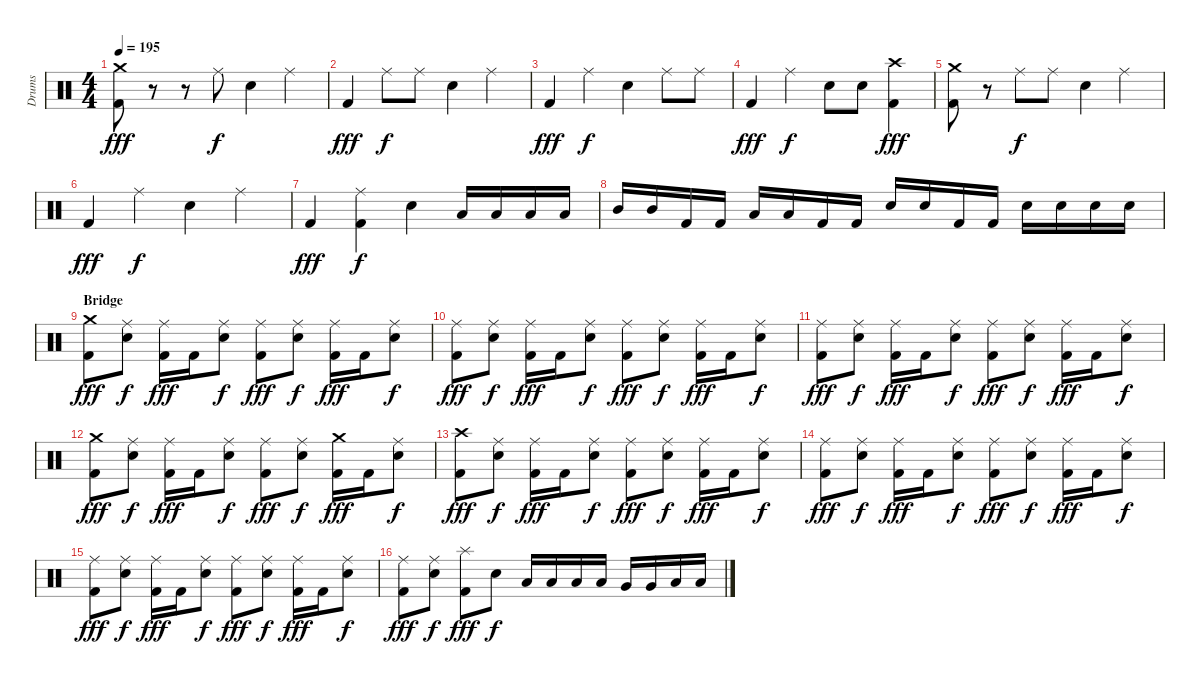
\track ("Drums" "Drums") {instrument percussion}
\staff {score}
\articulation defaults
\ts (4 4)
\tempo 195
\clef neutral
\ks c
("Crash medium (hit)" "Kick (hit) 2").8{dy fff} r.8 r.8 "Ride (middle)".8{dy f} "Snare (hit) 2".4 "Ride (middle)".4 |
"Kick (hit) 2".4{dy fff} "Ride (middle)".8{dy f} "Ride (middle)".8 "Snare (hit) 2".4 "Ride (middle)".4 |
"Kick (hit) 2".4{dy fff} "Ride (middle)".4{dy f} "Snare (hit) 2".4 "Ride (middle)".8 "Ride (middle)".8 |
"Kick (hit) 2".4{dy fff} "Ride (middle)".4{dy f} "Snare (hit) 2".8 "Snare (hit) 2".8 ("Crash high (hit)" "Kick (hit) 2").4{dy fff} |
("Crash medium (hit)" "Kick (hit) 2").8 r.8 "Ride (middle)".8{dy f} "Ride (middle)".8 "Snare (hit) 2".4 "Ride (middle)".4 |
"Kick (hit) 2".4{dy fff} "Ride (middle)".4{dy f} "Snare (hit) 2".4 "Ride (middle)".4 |
"Kick (hit) 2".4{dy fff} ("Ride (middle)" "Kick (hit) 2").4{dy f} "Snare (hit) 2".4 "Low Tom (hit)".16 "Low Tom (hit)".16 "Low Tom (hit)".16 "Low Tom (hit)".16 |
"Mid Tom (hit)".16 "Mid Tom (hit)".16 "Kick (hit) 2".16 "Kick (hit) 2".16 "Low Tom (hit)".16 "Low Tom (hit)".16 "Kick (hit) 2".16 "Kick (hit) 2".16 "Snare (hit) 2".16 "Snare (hit) 2".16 "Kick (hit) 2".16 "Kick (hit) 2".16 "Snare (hit) 2".16 "Snare (hit) 2".16 "Snare (hit) 2".16 "Snare (hit) 2".16 |
\section ("" "Bridge")
("Crash medium (hit)" "Kick (hit) 2").8{dy fff} ("Ride (middle)" "Snare (hit) 2").8{dy f} ("Ride (middle)" "Kick (hit) 2").16{dy fff} "Kick (hit) 2".16 ("Ride (middle)" "Snare (hit) 2").8{dy f} ("Ride (middle)" "Kick (hit) 2").8{dy fff} ("Ride (middle)" "Snare (hit) 2").8{dy f} ("Ride (middle)" "Kick (hit) 2").16{dy fff} "Kick (hit) 2".16 ("Ride (middle)" "Snare (hit) 2").8{dy f} |
("Ride (middle)" "Kick (hit) 2").8{dy fff} ("Ride (middle)" "Snare (hit) 2").8{dy f} ("Ride (middle)" "Kick (hit) 2").16{dy fff} "Kick (hit) 2".16 ("Ride (middle)" "Snare (hit) 2").8{dy f} ("Ride (middle)" "Kick (hit) 2").8{dy fff} ("Ride (middle)" "Snare (hit) 2").8{dy f} ("Ride (middle)" "Kick (hit) 2").16{dy fff} "Kick (hit) 2".16 ("Ride (middle)" "Snare (hit) 2").8{dy f} |
("Ride (middle)" "Kick (hit) 2").8{dy fff} ("Ride (middle)" "Snare (hit) 2").8{dy f} ("Ride (middle)" "Kick (hit) 2").16{dy fff} "Kick (hit) 2".16 ("Ride (middle)" "Snare (hit) 2").8{dy f} ("Ride (middle)" "Kick (hit) 2").8{dy fff} ("Ride (middle)" "Snare (hit) 2").8{dy f} ("Ride (middle)" "Kick (hit) 2").16{dy fff} "Kick (hit) 2".16 ("Ride (middle)" "Snare (hit) 2").8{dy f} |
("Crash medium (hit)" "Kick (hit) 2").8{dy fff} ("Ride (middle)" "Snare (hit) 2").8{dy f} ("Ride (middle)" "Kick (hit) 2").16{dy fff} "Kick (hit) 2".16 ("Ride (middle)" "Snare (hit) 2").8{dy f} ("Ride (middle)" "Kick (hit) 2").8{dy fff} ("Ride (middle)" "Snare (hit) 2").8{dy f} ("Crash medium (hit)" "Kick (hit) 2").16{dy fff} "Kick (hit) 2".16 ("Ride (middle)" "Snare (hit) 2").8{dy f} |
("Crash high (hit)" "Kick (hit) 2").8{dy fff} ("Ride (middle)" "Snare (hit) 2").8{dy f} ("Ride (middle)" "Kick (hit) 2").16{dy fff} "Kick (hit) 2".16 ("Ride (middle)" "Snare (hit) 2").8{dy f} ("Ride (middle)" "Kick (hit) 2").8{dy fff} ("Ride (middle)" "Snare (hit) 2").8{dy f} ("Ride (middle)" "Kick (hit) 2").16{dy fff} "Kick (hit) 2".16 ("Ride (middle)" "Snare (hit) 2").8{dy f} |
("Ride (middle)" "Kick (hit) 2").8{dy fff} ("Ride (middle)" "Snare (hit) 2").8{dy f} ("Ride (middle)" "Kick (hit) 2").16{dy fff} "Kick (hit) 2".16 ("Ride (middle)" "Snare (hit) 2").8{dy f} ("Ride (middle)" "Kick (hit) 2").8{dy fff} ("Ride (middle)" "Snare (hit) 2").8{dy f} ("Ride (middle)" "Kick (hit) 2").16{dy fff} "Kick (hit) 2".16 ("Ride (middle)" "Snare (hit) 2").8{dy f} |
("Ride (middle)" "Kick (hit) 2").8{dy fff} ("Ride (middle)" "Snare (hit) 2").8{dy f} ("Ride (middle)" "Kick (hit) 2").16{dy fff} "Kick (hit) 2".16 ("Ride (middle)" "Snare (hit) 2").8{dy f} ("Ride (middle)" "Kick (hit) 2").8{dy fff} ("Ride (middle)" "Snare (hit) 2").8{dy f} ("Ride (middle)" "Kick (hit) 2").16{dy fff} "Kick (hit) 2".16 ("Ride (middle)" "Snare (hit) 2").8{dy f} |
("Ride (middle)" "Kick (hit) 2").8{dy fff} ("Ride (middle)" "Snare (hit) 2").8{dy f} ("Splash (hit)" "Kick (hit) 2").8{dy fff} "Snare (hit) 2".8{dy f} "Low Tom (hit)".16 "Low Tom (hit)".16 "Low Tom (hit)".16 "Low Tom (hit)".16 "Very Low Tom (hit)".16 "Very Low Tom (hit)".16 "Low Floor Tom (hit)".16 "Low Floor Tom (hit)".16
